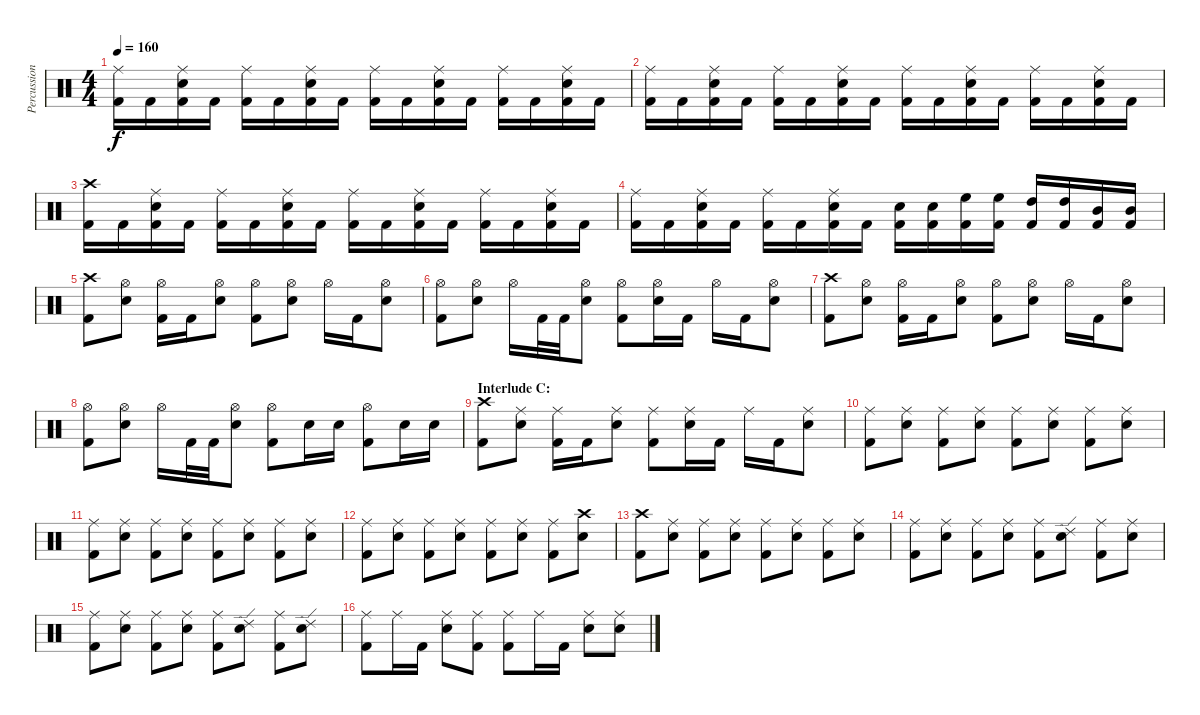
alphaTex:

\track ("Percussion" "Percussion") {instrument percussion}
\staff {score}
\articulation defaults
\ts (4 4)
\tempo 160
\clef neutral
\ks c
("Ride (middle)" "Kick (hit) 2").16{dy f} "Kick (hit) 2".16 ("Ride (middle)" "Electric Snare (hit)" "Kick (hit) 2").16 "Kick (hit) 2".16 ("Ride (middle)" "Kick (hit) 2").16 "Kick (hit) 2".16 ("Ride (middle)" "Electric Snare (hit)" "Kick (hit) 2").16 "Kick (hit) 2".16 ("Ride (middle)" "Kick (hit) 2").16 "Kick (hit) 2".16 ("Ride (middle)" "Electric Snare (hit)" "Kick (hit) 2").16 "Kick (hit) 2".16 ("Ride (middle)" "Kick (hit) 2").16 "Kick (hit) 2".16 ("Ride (middle)" "Electric Snare (hit)" "Kick (hit) 2").16 "Kick (hit) 2".16 |
("Ride (middle)" "Kick (hit) 2").16 "Kick (hit) 2".16 ("Ride (middle)" "Electric Snare (hit)" "Kick (hit) 2").16 "Kick (hit) 2".16 ("Ride (middle)" "Kick (hit) 2").16 "Kick (hit) 2".16 ("Ride (middle)" "Electric Snare (hit)" "Kick (hit) 2").16 "Kick (hit) 2".16 ("Ride (middle)" "Kick (hit) 2").16 "Kick (hit) 2".16 ("Ride (middle)" "Electric Snare (hit)" "Kick (hit) 2").16 "Kick (hit) 2".16 ("Ride (middle)" "Kick (hit) 2").16 "Kick (hit) 2".16 ("Ride (middle)" "Electric Snare (hit)" "Kick (hit) 2").16 "Kick (hit) 2".16 |
("Crash high (hit)" "Kick (hit) 2").16 "Kick (hit) 2".16 ("Ride (middle)" "Electric Snare (hit)" "Kick (hit) 2").16 "Kick (hit) 2".16 ("Ride (middle)" "Kick (hit) 2").16 "Kick (hit) 2".16 ("Ride (middle)" "Electric Snare (hit)" "Kick (hit) 2").16 "Kick (hit) 2".16 ("Ride (middle)" "Kick (hit) 2").16 "Kick (hit) 2".16 ("Ride (middle)" "Electric Snare (hit)" "Kick (hit) 2").16 "Kick (hit) 2".16 ("Ride (middle)" "Kick (hit) 2").16 "Kick (hit) 2".16 ("Ride (middle)" "Electric Snare (hit)" "Kick (hit) 2").16 "Kick (hit) 2".16 |
("Ride (middle)" "Kick (hit) 2").16 "Kick (hit) 2".16 ("Ride (middle)" "Electric Snare (hit)" "Kick (hit) 2").16 "Kick (hit) 2".16 ("Ride (middle)" "Kick (hit) 2").16 "Kick (hit) 2".16 ("Ride (middle)" "Electric Snare (hit)" "Kick (hit) 2").16 "Kick (hit) 2".16 ("Electric Snare (hit)" "Kick (hit) 2").16 ("Electric Snare (hit)" "Kick (hit) 2").16 ("High Floor Tom (hit)" "Kick (hit) 2").16 ("High Floor Tom (hit)" "Kick (hit) 2").16 ("High Tom (hit)" "Kick (hit) 2").16 ("High Tom (hit)" "Kick (hit) 2").16 ("Mid Tom (hit)" "Kick (hit) 2").16 ("Mid Tom (hit)" "Kick (hit) 2").16 |
("Crash high (hit)" "Kick (hit) 2").8 ("Hi-Hat (open)" "Electric Snare (hit)").8 ("Hi-Hat (open)" "Kick (hit) 2").16 "Kick (hit) 2".16 ("Hi-Hat (open)" "Electric Snare (hit)").8 ("Hi-Hat (open)" "Kick (hit) 2").8 ("Hi-Hat (open)" "Electric Snare (hit)").8 "Hi-Hat (open)".16 "Kick (hit) 2".16 ("Hi-Hat (open)" "Electric Snare (hit)").8 |
("Hi-Hat (open)" "Kick (hit) 2").8 ("Hi-Hat (open)" "Electric Snare (hit)").8 "Hi-Hat (open)".16 "Kick (hit) 2".32 "Kick (hit) 2".32 ("Hi-Hat (open)" "Electric Snare (hit)").8 ("Hi-Hat (open)" "Kick (hit) 2").8 ("Hi-Hat (open)" "Electric Snare (hit)").16 "Kick (hit) 2".16 "Hi-Hat (open)".16 "Kick (hit) 2".16 ("Hi-Hat (open)" "Electric Snare (hit)").8 |
("Crash high (hit)" "Kick (hit) 2").8 ("Hi-Hat (open)" "Electric Snare (hit)").8 ("Hi-Hat (open)" "Kick (hit) 2").16 "Kick (hit) 2".16 ("Hi-Hat (open)" "Electric Snare (hit)").8 ("Hi-Hat (open)" "Kick (hit) 2").8 ("Hi-Hat (open)" "Electric Snare (hit)").8 "Hi-Hat (open)".16 "Kick (hit) 2".16 ("Hi-Hat (open)" "Electric Snare (hit)").8 |
("Hi-Hat (open)" "Kick (hit) 2").8 ("Hi-Hat (open)" "Electric Snare (hit)").8 "Hi-Hat (open)".16 "Kick (hit) 2".32 "Kick (hit) 2".32 ("Hi-Hat (open)" "Electric Snare (hit)").8 ("Hi-Hat (open)" "Kick (hit) 2").8 "Electric Snare (hit)".16 "Electric Snare (hit)".16 ("Hi-Hat (open)" "Kick (hit) 2").8 "Electric Snare (hit)".16 "Electric Snare (hit)".16 |
\section ("" "Interlude C:")
("Crash high (hit)" "Kick (hit) 2").8 ("Ride (middle)" "Electric Snare (hit)").8 ("Ride (middle)" "Kick (hit) 2").16 "Kick (hit) 2".16 ("Ride (middle)" "Electric Snare (hit)").8 ("Ride (middle)" "Kick (hit) 2").8 ("Ride (middle)" "Electric Snare (hit)").16 "Kick (hit) 2".16 "Ride (middle)".16 "Kick (hit) 2".16 ("Ride (middle)" "Electric Snare (hit)").8 |
("Ride (middle)" "Kick (hit) 2").8 ("Ride (middle)" "Electric Snare (hit)").8 ("Ride (middle)" "Kick (hit) 2").8 ("Ride (middle)" "Electric Snare (hit)").8 ("Ride (middle)" "Kick (hit) 2").8 ("Ride (middle)" "Electric Snare (hit)").8 ("Ride (middle)" "Kick (hit) 2").8 ("Ride (middle)" "Electric Snare (hit)").8 |
("Ride (middle)" "Kick (hit) 2").8 ("Ride (middle)" "Electric Snare (hit)").8 ("Ride (middle)" "Kick (hit) 2").8 ("Ride (middle)" "Electric Snare (hit)").8 ("Ride (middle)" "Kick (hit) 2").8 ("Ride (middle)" "Electric Snare (hit)").8 ("Ride (middle)" "Kick (hit) 2").8 ("Ride (middle)" "Electric Snare (hit)").8 |
("Ride (middle)" "Kick (hit) 2").8 ("Ride (middle)" "Electric Snare (hit)").8 ("Ride (middle)" "Kick (hit) 2").8 ("Ride (middle)" "Electric Snare (hit)").8 ("Ride (middle)" "Kick (hit) 2").8 ("Ride (middle)" "Electric Snare (hit)").8 ("Ride (middle)" "Kick (hit) 2").8 ("Crash high (hit)" "Electric Snare (hit)").8 |
("Crash high (hit)" "Kick (hit) 2").8 ("Ride (middle)" "Electric Snare (hit)").8 ("Ride (middle)" "Kick (hit) 2").8 ("Ride (middle)" "Electric Snare (hit)").8 ("Ride (middle)" "Kick (hit) 2").8 ("Ride (middle)" "Electric Snare (hit)").8 ("Ride (middle)" "Kick (hit) 2").8 ("Ride (middle)" "Electric Snare (hit)").8 |
("Ride (middle)" "Kick (hit) 2").8 ("Ride (middle)" "Electric Snare (hit)").8 ("Ride (middle)" "Kick (hit) 2").8 ("Ride (middle)" "Electric Snare (hit)").8 ("Ride (middle)" "Kick (hit) 2").8 ("Ride (edge) 2" "Electric Snare (hit)").8 ("Ride (middle)" "Kick (hit) 2").8 ("Ride (middle)" "Electric Snare (hit)").8 |
("Ride (middle)" "Kick (hit) 2").8 ("Ride (middle)" "Electric Snare (hit)").8 ("Ride (middle)" "Kick (hit) 2").8 ("Ride (middle)" "Electric Snare (hit)").8 ("Ride (middle)" "Kick (hit) 2").8 ("Ride (edge) 2" "Electric Snare (hit)").8 ("Ride (middle)" "Kick (hit) 2").8 ("Ride (edge) 2" "Electric Snare (hit)").8 |
("Ride (middle)" "Kick (hit) 2").8 "Ride (middle)".16 "Kick (hit) 2".16 ("Ride (middle)" "Electric Snare (hit)").8 ("Ride (middle)" "Kick (hit) 2").8 ("Ride (middle)" "Kick (hit) 2").8 "Ride (middle)".16 "Kick (hit) 2".16 ("Ride (middle)" "Electric Snare (hit)").8 ("Ride (middle)" "Electric Snare (hit)").8
